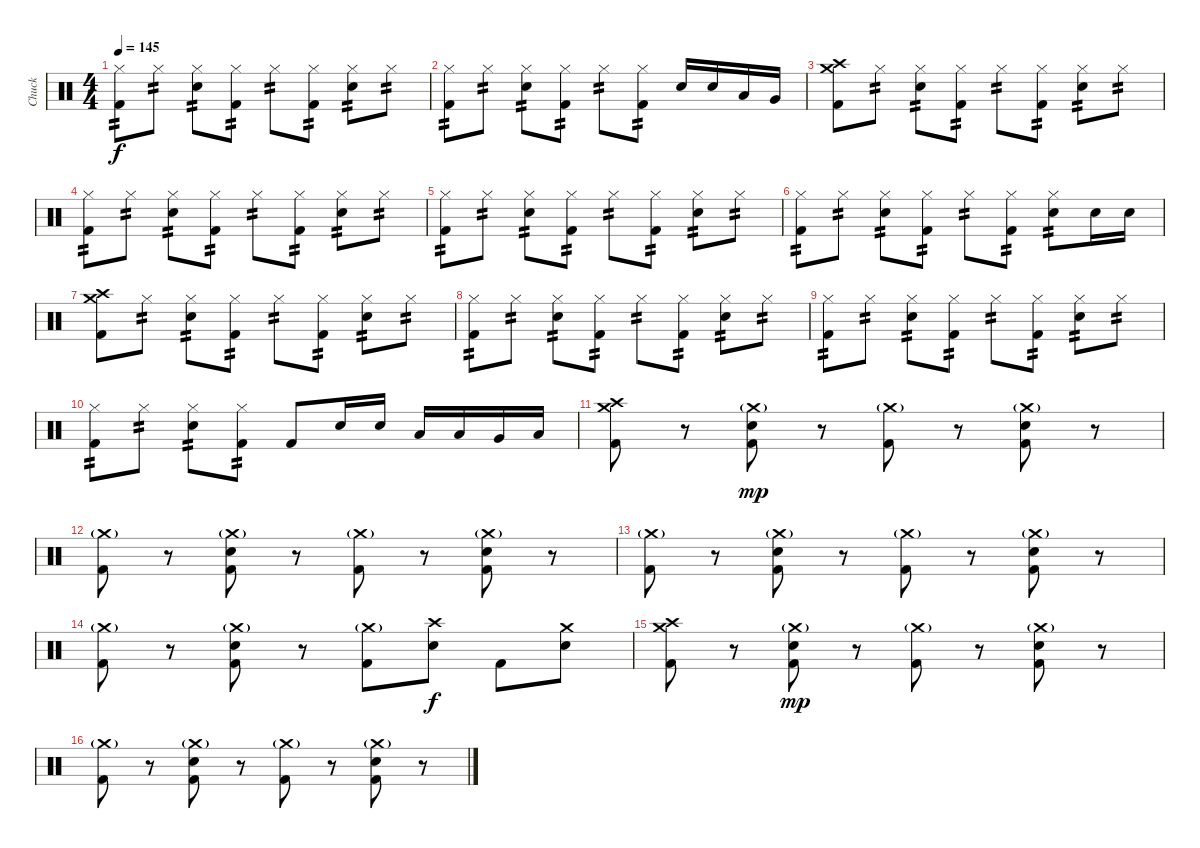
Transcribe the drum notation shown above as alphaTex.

\track ("Chuck" "Chuck") {instrument percussion}
\staff {score}
\articulation defaults
\ts (4 4)
\tempo 145
\clef neutral
\ks c
("Hi-Hat (closed)" "Kick (hit) 2").8{tp 2 dy f} "Hi-Hat (closed)".8{tp 2} ("Hi-Hat (closed)" "Snare (hit) 2").8{tp 2} ("Hi-Hat (closed)" "Kick (hit) 2").8{tp 2} "Hi-Hat (closed)".8{tp 2} ("Hi-Hat (closed)" "Kick (hit) 2").8{tp 2} ("Hi-Hat (closed)" "Snare (hit) 2").8{tp 2} "Hi-Hat (closed)".8{tp 2} |
("Hi-Hat (closed)" "Kick (hit) 2").8{tp 2} "Hi-Hat (closed)".8{tp 2} ("Hi-Hat (closed)" "Snare (hit) 2").8{tp 2} ("Hi-Hat (closed)" "Kick (hit) 2").8{tp 2} "Hi-Hat (closed)".8{tp 2} ("Hi-Hat (closed)" "Kick (hit) 2").8{tp 2} "Snare (hit) 2".16 "Snare (hit) 2".16 "Low Tom (hit)".16 "Very Low Tom (hit)".16 |
("Crash medium (hit)" "Crash high (hit)" "Kick (hit) 2").8 "Hi-Hat (closed)".8{tp 2} ("Hi-Hat (closed)" "Snare (hit) 2").8{tp 2} ("Hi-Hat (closed)" "Kick (hit) 2").8{tp 2} "Hi-Hat (closed)".8{tp 2} ("Hi-Hat (closed)" "Kick (hit) 2").8{tp 2} ("Hi-Hat (closed)" "Snare (hit) 2").8{tp 2} "Hi-Hat (closed)".8{tp 2} |
("Hi-Hat (closed)" "Kick (hit) 2").8{tp 2} "Hi-Hat (closed)".8{tp 2} ("Hi-Hat (closed)" "Snare (hit) 2").8{tp 2} ("Hi-Hat (closed)" "Kick (hit) 2").8{tp 2} "Hi-Hat (closed)".8{tp 2} ("Hi-Hat (closed)" "Kick (hit) 2").8{tp 2} ("Hi-Hat (closed)" "Snare (hit) 2").8{tp 2} "Hi-Hat (closed)".8{tp 2} |
("Hi-Hat (closed)" "Kick (hit) 2").8{tp 2} "Hi-Hat (closed)".8{tp 2} ("Hi-Hat (closed)" "Snare (hit) 2").8{tp 2} ("Hi-Hat (closed)" "Kick (hit) 2").8{tp 2} "Hi-Hat (closed)".8{tp 2} ("Hi-Hat (closed)" "Kick (hit) 2").8{tp 2} ("Hi-Hat (closed)" "Snare (hit) 2").8{tp 2} "Hi-Hat (closed)".8{tp 2} |
("Hi-Hat (closed)" "Kick (hit) 2").8{tp 2} "Hi-Hat (closed)".8{tp 2} ("Hi-Hat (closed)" "Snare (hit) 2").8{tp 2} ("Hi-Hat (closed)" "Kick (hit) 2").8{tp 2} "Hi-Hat (closed)".8{tp 2} ("Hi-Hat (closed)" "Kick (hit) 2").8{tp 2} ("Hi-Hat (closed)" "Snare (hit) 2").8{tp 2} "Snare (hit) 2".16 "Snare (hit) 2".16 |
("Crash medium (hit)" "Crash high (hit)" "Kick (hit) 2").8 "Hi-Hat (closed)".8{tp 2} ("Hi-Hat (closed)" "Snare (hit) 2").8{tp 2} ("Hi-Hat (closed)" "Kick (hit) 2").8{tp 2} "Hi-Hat (closed)".8{tp 2} ("Hi-Hat (closed)" "Kick (hit) 2").8{tp 2} ("Hi-Hat (closed)" "Snare (hit) 2").8{tp 2} "Hi-Hat (closed)".8{tp 2} |
("Hi-Hat (closed)" "Kick (hit) 2").8{tp 2} "Hi-Hat (closed)".8{tp 2} ("Hi-Hat (closed)" "Snare (hit) 2").8{tp 2} ("Hi-Hat (closed)" "Kick (hit) 2").8{tp 2} "Hi-Hat (closed)".8{tp 2} ("Hi-Hat (closed)" "Kick (hit) 2").8{tp 2} ("Hi-Hat (closed)" "Snare (hit) 2").8{tp 2} "Hi-Hat (closed)".8{tp 2} |
("Hi-Hat (closed)" "Kick (hit) 2").8{tp 2} "Hi-Hat (closed)".8{tp 2} ("Hi-Hat (closed)" "Snare (hit) 2").8{tp 2} ("Hi-Hat (closed)" "Kick (hit) 2").8{tp 2} "Hi-Hat (closed)".8{tp 2} ("Hi-Hat (closed)" "Kick (hit) 2").8{tp 2} ("Hi-Hat (closed)" "Snare (hit) 2").8{tp 2} "Hi-Hat (closed)".8{tp 2} |
("Hi-Hat (closed)" "Kick (hit) 2").8{tp 2} "Hi-Hat (closed)".8{tp 2} ("Hi-Hat (closed)" "Snare (hit) 2").8{tp 2} ("Hi-Hat (closed)" "Kick (hit) 2").8{tp 2} "Kick (hit) 2".8 "Snare (hit) 2".16 "Snare (hit) 2".16 "Low Tom (hit)".16 "Low Tom (hit)".16 "Very Low Tom (hit)".16 "Low Floor Tom (hit)".16 |
("Crash medium (hit)" "Crash high (hit)" "Kick (hit) 2").8 r.8 ("Crash medium (hit)"{g} "Snare (hit) 2" "Kick (hit) 2").8{dy mp} r.8 ("Crash medium (hit)"{g} "Kick (hit) 2").8 r.8 ("Crash medium (hit)"{g} "Snare (hit) 2" "Kick (hit) 2").8 r.8 |
("Crash medium (hit)"{g} "Kick (hit) 2").8 r.8 ("Crash medium (hit)"{g} "Snare (hit) 2" "Kick (hit) 2").8 r.8 ("Crash medium (hit)"{g} "Kick (hit) 2").8 r.8 ("Crash medium (hit)"{g} "Snare (hit) 2" "Kick (hit) 2").8 r.8 |
("Crash medium (hit)"{g} "Kick (hit) 2").8 r.8 ("Crash medium (hit)"{g} "Snare (hit) 2" "Kick (hit) 2").8 r.8 ("Crash medium (hit)"{g} "Kick (hit) 2").8 r.8 ("Crash medium (hit)"{g} "Snare (hit) 2" "Kick (hit) 2").8 r.8 |
("Crash medium (hit)"{g} "Kick (hit) 2").8 r.8 ("Crash medium (hit)"{g} "Snare (hit) 2" "Kick (hit) 2").8 r.8 ("Crash medium (hit)"{g} "Kick (hit) 2").8 ("Crash high (hit)" "Snare (hit) 2").8{dy f} "Kick (hit) 2".8 ("Crash medium (hit)" "Snare (hit) 2").8 |
("Crash medium (hit)" "Crash high (hit)" "Kick (hit) 2").8 r.8 ("Crash medium (hit)"{g} "Snare (hit) 2" "Kick (hit) 2").8{dy mp} r.8 ("Crash medium (hit)"{g} "Kick (hit) 2").8 r.8 ("Crash medium (hit)"{g} "Snare (hit) 2" "Kick (hit) 2").8 r.8 |
("Crash medium (hit)"{g} "Kick (hit) 2").8 r.8 ("Crash medium (hit)"{g} "Snare (hit) 2" "Kick (hit) 2").8 r.8 ("Crash medium (hit)"{g} "Kick (hit) 2").8 r.8 ("Crash medium (hit)"{g} "Snare (hit) 2" "Kick (hit) 2").8 r.8
